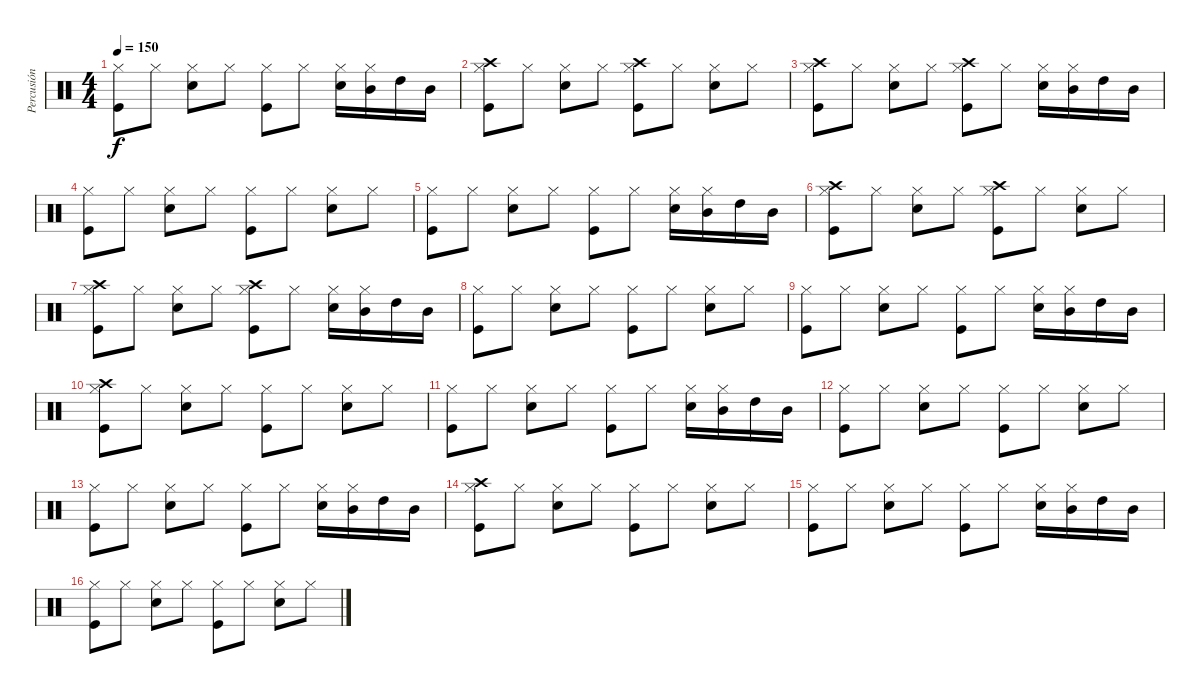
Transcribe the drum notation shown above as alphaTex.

\track ("Percusión" "Percusión") {instrument percussion}
\staff {score}
\articulation defaults
\ts (4 4)
\tempo 150
\clef neutral
\ks c
("Hi-Hat (closed)" "Kick (hit)").8{dy f} "Hi-Hat (closed)".8 ("Hi-Hat (closed)" "Snare (hit) 2").8 "Hi-Hat (closed)".8 ("Hi-Hat (closed)" "Kick (hit)").8 "Hi-Hat (closed)".8 ("Hi-Hat (closed)" "Snare (hit) 2").16 ("Hi-Hat (closed)" "Mid Tom (hit)").16 "High Tom (hit)".16 "Mid Tom (hit)".16 |
("Hi-Hat (closed)" "Crash high (hit)" "Kick (hit)").8 "Hi-Hat (closed)".8 ("Hi-Hat (closed)" "Snare (hit) 2").8 "Hi-Hat (closed)".8 ("Hi-Hat (closed)" "Crash high (hit)" "Kick (hit)").8 "Hi-Hat (closed)".8 ("Hi-Hat (closed)" "Snare (hit) 2").8 "Hi-Hat (closed)".8 |
("Hi-Hat (closed)" "Crash high (hit)" "Kick (hit)").8 "Hi-Hat (closed)".8 ("Hi-Hat (closed)" "Snare (hit) 2").8 "Hi-Hat (closed)".8 ("Hi-Hat (closed)" "Crash high (hit)" "Kick (hit)").8 "Hi-Hat (closed)".8 ("Hi-Hat (closed)" "Snare (hit) 2").16 ("Hi-Hat (closed)" "Mid Tom (hit)").16 "High Tom (hit)".16 "Mid Tom (hit)".16 |
("Hi-Hat (closed)" "Kick (hit)").8 "Hi-Hat (closed)".8 ("Hi-Hat (closed)" "Snare (hit) 2").8 "Hi-Hat (closed)".8 ("Hi-Hat (closed)" "Kick (hit)").8 "Hi-Hat (closed)".8 ("Hi-Hat (closed)" "Snare (hit) 2").8 "Hi-Hat (closed)".8 |
("Hi-Hat (closed)" "Kick (hit)").8 "Hi-Hat (closed)".8 ("Hi-Hat (closed)" "Snare (hit) 2").8 "Hi-Hat (closed)".8 ("Hi-Hat (closed)" "Kick (hit)").8 "Hi-Hat (closed)".8 ("Hi-Hat (closed)" "Snare (hit) 2").16 ("Hi-Hat (closed)" "Mid Tom (hit)").16 "High Tom (hit)".16 "Mid Tom (hit)".16 |
("Hi-Hat (closed)" "Crash high (hit)" "Kick (hit)").8 "Hi-Hat (closed)".8 ("Hi-Hat (closed)" "Snare (hit) 2").8 "Hi-Hat (closed)".8 ("Hi-Hat (closed)" "Crash high (hit)" "Kick (hit)").8 "Hi-Hat (closed)".8 ("Hi-Hat (closed)" "Snare (hit) 2").8 "Hi-Hat (closed)".8 |
("Hi-Hat (closed)" "Crash high (hit)" "Kick (hit)").8 "Hi-Hat (closed)".8 ("Hi-Hat (closed)" "Snare (hit) 2").8 "Hi-Hat (closed)".8 ("Hi-Hat (closed)" "Crash high (hit)" "Kick (hit)").8 "Hi-Hat (closed)".8 ("Hi-Hat (closed)" "Snare (hit) 2").16 ("Hi-Hat (closed)" "Mid Tom (hit)").16 "High Tom (hit)".16 "Mid Tom (hit)".16 |
("Hi-Hat (closed)" "Kick (hit)").8 "Hi-Hat (closed)".8 ("Hi-Hat (closed)" "Snare (hit) 2").8 "Hi-Hat (closed)".8 ("Hi-Hat (closed)" "Kick (hit)").8 "Hi-Hat (closed)".8 ("Hi-Hat (closed)" "Snare (hit) 2").8 "Hi-Hat (closed)".8 |
("Hi-Hat (closed)" "Kick (hit)").8 "Hi-Hat (closed)".8 ("Hi-Hat (closed)" "Snare (hit) 2").8 "Hi-Hat (closed)".8 ("Hi-Hat (closed)" "Kick (hit)").8 "Hi-Hat (closed)".8 ("Hi-Hat (closed)" "Snare (hit) 2").16 ("Hi-Hat (closed)" "Mid Tom (hit)").16 "High Tom (hit)".16 "Mid Tom (hit)".16 |
("Hi-Hat (closed)" "Crash high (hit)" "Kick (hit)").8 "Hi-Hat (closed)".8 ("Hi-Hat (closed)" "Snare (hit) 2").8 "Hi-Hat (closed)".8 ("Hi-Hat (closed)" "Kick (hit)").8 "Hi-Hat (closed)".8 ("Hi-Hat (closed)" "Snare (hit) 2").8 "Hi-Hat (closed)".8 |
("Hi-Hat (closed)" "Kick (hit)").8 "Hi-Hat (closed)".8 ("Hi-Hat (closed)" "Snare (hit) 2").8 "Hi-Hat (closed)".8 ("Hi-Hat (closed)" "Kick (hit)").8 "Hi-Hat (closed)".8 ("Hi-Hat (closed)" "Snare (hit) 2").16 ("Hi-Hat (closed)" "Mid Tom (hit)").16 "High Tom (hit)".16 "Mid Tom (hit)".16 |
("Hi-Hat (closed)" "Kick (hit)").8 "Hi-Hat (closed)".8 ("Hi-Hat (closed)" "Snare (hit) 2").8 "Hi-Hat (closed)".8 ("Hi-Hat (closed)" "Kick (hit)").8 "Hi-Hat (closed)".8 ("Hi-Hat (closed)" "Snare (hit) 2").8 "Hi-Hat (closed)".8 |
("Hi-Hat (closed)" "Kick (hit)").8 "Hi-Hat (closed)".8 ("Hi-Hat (closed)" "Snare (hit) 2").8 "Hi-Hat (closed)".8 ("Hi-Hat (closed)" "Kick (hit)").8 "Hi-Hat (closed)".8 ("Hi-Hat (closed)" "Snare (hit) 2").16 ("Hi-Hat (closed)" "Mid Tom (hit)").16 "High Tom (hit)".16 "Mid Tom (hit)".16 |
("Hi-Hat (closed)" "Crash high (hit)" "Kick (hit)").8 "Hi-Hat (closed)".8 ("Hi-Hat (closed)" "Snare (hit) 2").8 "Hi-Hat (closed)".8 ("Hi-Hat (closed)" "Kick (hit)").8 "Hi-Hat (closed)".8 ("Hi-Hat (closed)" "Snare (hit) 2").8 "Hi-Hat (closed)".8 |
("Hi-Hat (closed)" "Kick (hit)").8 "Hi-Hat (closed)".8 ("Hi-Hat (closed)" "Snare (hit) 2").8 "Hi-Hat (closed)".8 ("Hi-Hat (closed)" "Kick (hit)").8 "Hi-Hat (closed)".8 ("Hi-Hat (closed)" "Snare (hit) 2").16 ("Hi-Hat (closed)" "Mid Tom (hit)").16 "High Tom (hit)".16 "Mid Tom (hit)".16 |
("Hi-Hat (closed)" "Kick (hit)").8 "Hi-Hat (closed)".8 ("Hi-Hat (closed)" "Snare (hit) 2").8 "Hi-Hat (closed)".8 ("Hi-Hat (closed)" "Kick (hit)").8 "Hi-Hat (closed)".8 ("Hi-Hat (closed)" "Snare (hit) 2").8 "Hi-Hat (closed)".8
